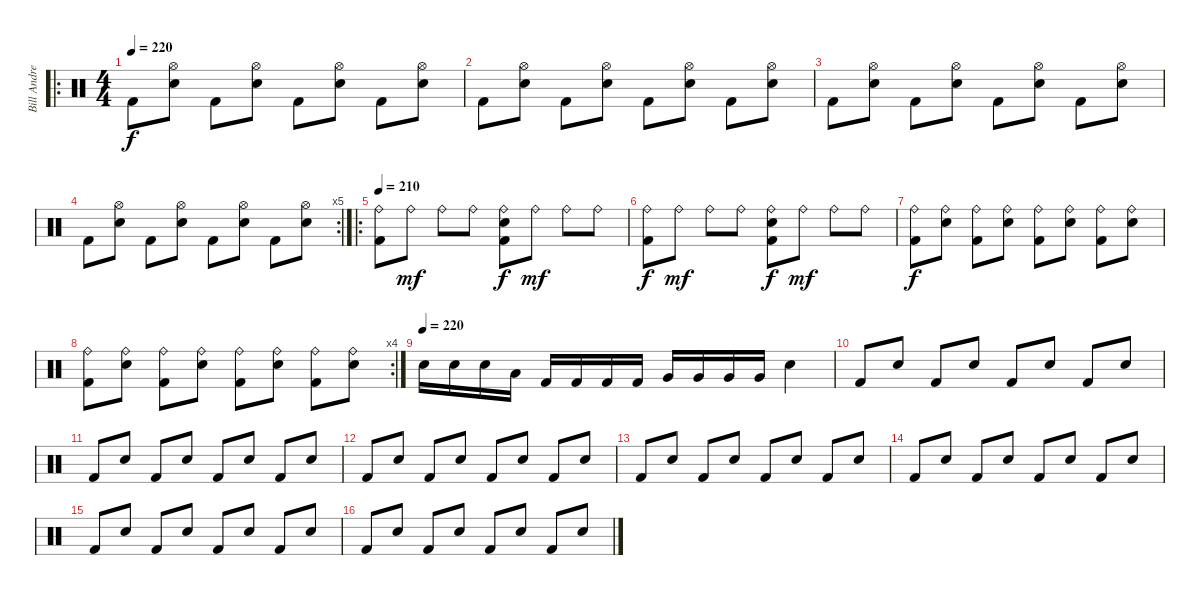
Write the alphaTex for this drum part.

\track ("Bill Andrews" "Bill Andre") {instrument percussion}
\staff {score}
\articulation defaults
\ro
\ts (4 4)
\tempo 220
\clef neutral
\ks c "Kick (hit) 2".8{dy f}
("Hi-Hat (open)" "Snare (hit) 2").8 "Kick (hit) 2".8 ("Hi-Hat (open)" "Snare (hit) 2").8 "Kick (hit) 2".8 ("Hi-Hat (open)" "Snare (hit) 2").8 "Kick (hit) 2".8 ("Hi-Hat (open)" "Snare (hit) 2").8 |
"Kick (hit) 2".8 ("Hi-Hat (open)" "Snare (hit) 2").8 "Kick (hit) 2".8 ("Hi-Hat (open)" "Snare (hit) 2").8 "Kick (hit) 2".8 ("Hi-Hat (open)" "Snare (hit) 2").8 "Kick (hit) 2".8 ("Hi-Hat (open)" "Snare (hit) 2").8 |
"Kick (hit) 2".8 ("Hi-Hat (open)" "Snare (hit) 2").8 "Kick (hit) 2".8 ("Hi-Hat (open)" "Snare (hit) 2").8 "Kick (hit) 2".8 ("Hi-Hat (open)" "Snare (hit) 2").8 "Kick (hit) 2".8 ("Hi-Hat (open)" "Snare (hit) 2").8 |
\rc 5 "Kick (hit) 2".8
("Hi-Hat (open)" "Snare (hit) 2").8 "Kick (hit) 2".8 ("Hi-Hat (open)" "Snare (hit) 2").8 "Kick (hit) 2".8 ("Hi-Hat (open)" "Snare (hit) 2").8 "Kick (hit) 2".8 ("Hi-Hat (open)" "Snare (hit) 2").8 |
\ro
\tempo 210
("Ride (bell)" "Kick (hit) 2").8 "Ride (bell)".8{dy mf} "Ride (bell)".8 "Ride (bell)".8 ("Ride (bell)" "Snare (hit) 2" "Kick (hit) 2").8{dy f} "Ride (bell)".8{dy mf} "Ride (bell)".8 "Ride (bell)".8 |
("Ride (bell)" "Kick (hit) 2").8{dy f} "Ride (bell)".8{dy mf} "Ride (bell)".8 "Ride (bell)".8 ("Ride (bell)" "Snare (hit) 2" "Kick (hit) 2").8{dy f} "Ride (bell)".8{dy mf} "Ride (bell)".8 "Ride (bell)".8 |
("Ride (bell)" "Kick (hit) 2").8{dy f} ("Ride (bell)" "Snare (hit) 2").8 ("Ride (bell)" "Kick (hit) 2").8 ("Ride (bell)" "Snare (hit) 2").8 ("Ride (bell)" "Kick (hit) 2").8 ("Ride (bell)" "Snare (hit) 2").8 ("Ride (bell)" "Kick (hit) 2").8 ("Ride (bell)" "Snare (hit) 2").8 |
\rc 4
("Ride (bell)" "Kick (hit) 2").8 ("Ride (bell)" "Snare (hit) 2").8 ("Ride (bell)" "Kick (hit) 2").8 ("Ride (bell)" "Snare (hit) 2").8 ("Ride (bell)" "Kick (hit) 2").8 ("Ride (bell)" "Snare (hit) 2").8 ("Ride (bell)" "Kick (hit) 2").8 ("Ride (bell)" "Snare (hit) 2").8 |
\tempo (220)
"Snare (hit) 2".16 "Snare (hit) 2".16 "Snare (hit) 2".16 "Low Tom (hit)".16 "Kick (hit) 2".16 "Kick (hit) 2".16 "Kick (hit) 2".16 "Kick (hit) 2".16 "Very Low Tom (hit)".16 "Very Low Tom (hit)".16 "Very Low Tom (hit)".16 "Very Low Tom (hit)".16 "Snare (hit) 2".4 |
"Kick (hit) 2".8 "Snare (hit) 2".8 "Kick (hit) 2".8 "Snare (hit) 2".8 "Kick (hit) 2".8 "Snare (hit) 2".8 "Kick (hit) 2".8 "Snare (hit) 2".8 |
"Kick (hit) 2".8 "Snare (hit) 2".8 "Kick (hit) 2".8 "Snare (hit) 2".8 "Kick (hit) 2".8 "Snare (hit) 2".8 "Kick (hit) 2".8 "Snare (hit) 2".8 |
"Kick (hit) 2".8 "Snare (hit) 2".8 "Kick (hit) 2".8 "Snare (hit) 2".8 "Kick (hit) 2".8 "Snare (hit) 2".8 "Kick (hit) 2".8 "Snare (hit) 2".8 |
"Kick (hit) 2".8 "Snare (hit) 2".8 "Kick (hit) 2".8 "Snare (hit) 2".8 "Kick (hit) 2".8 "Snare (hit) 2".8 "Kick (hit) 2".8 "Snare (hit) 2".8 |
"Kick (hit) 2".8 "Snare (hit) 2".8 "Kick (hit) 2".8 "Snare (hit) 2".8 "Kick (hit) 2".8 "Snare (hit) 2".8 "Kick (hit) 2".8 "Snare (hit) 2".8 |
"Kick (hit) 2".8 "Snare (hit) 2".8 "Kick (hit) 2".8 "Snare (hit) 2".8 "Kick (hit) 2".8 "Snare (hit) 2".8 "Kick (hit) 2".8 "Snare (hit) 2".8 |
"Kick (hit) 2".8 "Snare (hit) 2".8 "Kick (hit) 2".8 "Snare (hit) 2".8 "Kick (hit) 2".8 "Snare (hit) 2".8 "Kick (hit) 2".8 "Snare (hit) 2".8
